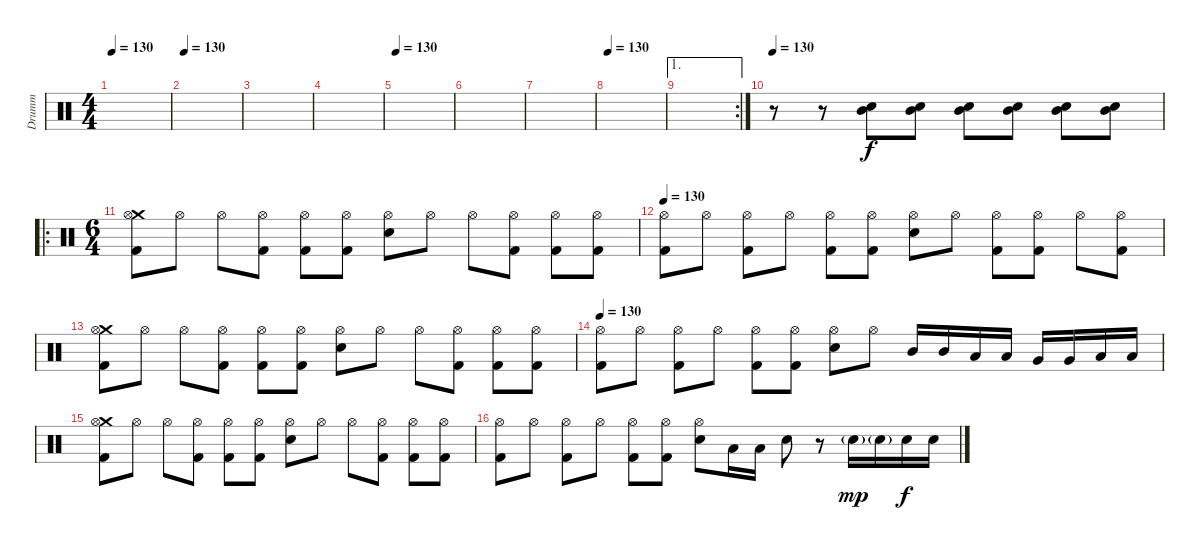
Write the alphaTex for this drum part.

\track ("Drumm" "Drumm") {instrument percussion}
\staff {score}
\articulation defaults
\ts (4 4)
\tempo 130
\clef neutral
\ks c
|
\tempo 130
|
|
|
\tempo 130
|
|
|
\tempo 130
|
\ae 1
\rc 2
|
\tempo 130
r.8{volume 5} r.8 ("Mid Tom (hit)" "Snare (hit) 2").8{volume 12} ("Mid Tom (hit)" "Snare (hit) 2").8 ("Mid Tom (hit)" "Snare (hit) 2").8 ("Mid Tom (hit)" "Snare (hit) 2").8 ("Mid Tom (hit)" "Snare (hit) 2").8 ("Mid Tom (hit)" "Snare (hit) 2").8 |
\ro
\ts (6 4)
("Crash medium (hit)" "Hi-Hat (open)" "Kick (hit) 2").8 "Hi-Hat (open)".8 "Hi-Hat (open)".8 ("Hi-Hat (open)" "Kick (hit) 2").8 ("Hi-Hat (open)" "Kick (hit) 2").8 ("Hi-Hat (open)" "Kick (hit) 2").8 ("Hi-Hat (open)" "Electric Snare (hit)").8 "Hi-Hat (open)".8 "Hi-Hat (open)".8 ("Hi-Hat (open)" "Kick (hit) 2").8 ("Hi-Hat (open)" "Kick (hit) 2").8 ("Hi-Hat (open)" "Kick (hit) 2").8 |
\tempo 130
("Hi-Hat (open)" "Kick (hit) 2").8 "Hi-Hat (open)".8 ("Hi-Hat (open)" "Kick (hit) 2").8 "Hi-Hat (open)".8 ("Hi-Hat (open)" "Kick (hit) 2").8 ("Hi-Hat (open)" "Kick (hit) 2").8 ("Hi-Hat (open)" "Electric Snare (hit)").8 "Hi-Hat (open)".8 ("Hi-Hat (open)" "Kick (hit) 2").8 ("Hi-Hat (open)" "Kick (hit) 2").8 "Hi-Hat (open)".8 ("Hi-Hat (open)" "Kick (hit) 2").8 |
("Crash medium (hit)" "Hi-Hat (open)" "Kick (hit) 2").8 "Hi-Hat (open)".8 "Hi-Hat (open)".8 ("Hi-Hat (open)" "Kick (hit) 2").8 ("Hi-Hat (open)" "Kick (hit) 2").8 ("Hi-Hat (open)" "Kick (hit) 2").8 ("Hi-Hat (open)" "Electric Snare (hit)").8 "Hi-Hat (open)".8 "Hi-Hat (open)".8 ("Hi-Hat (open)" "Kick (hit) 2").8 ("Hi-Hat (open)" "Kick (hit) 2").8 ("Hi-Hat (open)" "Kick (hit) 2").8 |
\tempo 130
("Hi-Hat (open)" "Kick (hit) 2").8 "Hi-Hat (open)".8 ("Hi-Hat (open)" "Kick (hit) 2").8 "Hi-Hat (open)".8 ("Hi-Hat (open)" "Kick (hit) 2").8 ("Hi-Hat (open)" "Kick (hit) 2").8 ("Hi-Hat (open)" "Electric Snare (hit)").8 "Hi-Hat (open)".8 "Mid Tom (hit)".16 "Mid Tom (hit)".16 "Low Tom (hit)".16 "Low Tom (hit)".16 "Very Low Tom (hit)".16 "Very Low Tom (hit)".16 "Low Floor Tom (hit)".16 "Low Floor Tom (hit)".16 |
("Crash medium (hit)" "Hi-Hat (open)" "Kick (hit) 2").8 "Hi-Hat (open)".8 "Hi-Hat (open)".8 ("Hi-Hat (open)" "Kick (hit) 2").8 ("Hi-Hat (open)" "Kick (hit) 2").8 ("Hi-Hat (open)" "Kick (hit) 2").8 ("Hi-Hat (open)" "Electric Snare (hit)").8 "Hi-Hat (open)".8 "Hi-Hat (open)".8 ("Hi-Hat (open)" "Kick (hit) 2").8 ("Hi-Hat (open)" "Kick (hit) 2").8 ("Hi-Hat (open)" "Kick (hit) 2").8 |
("Hi-Hat (open)" "Kick (hit) 2").8 "Hi-Hat (open)".8 ("Hi-Hat (open)" "Kick (hit) 2").8 "Hi-Hat (open)".8 ("Hi-Hat (open)" "Kick (hit) 2").8 ("Hi-Hat (open)" "Kick (hit) 2").8 ("Hi-Hat (open)" "Electric Snare (hit)").8 "Low Tom (hit)".16 "Low Tom (hit)".16 "Electric Snare (hit)".8 r.8 "Electric Snare (hit)"{g}.16{dy mp} "Electric Snare (hit)"{g}.16 "Electric Snare (hit)".16{dy f} "Electric Snare (hit)".16
